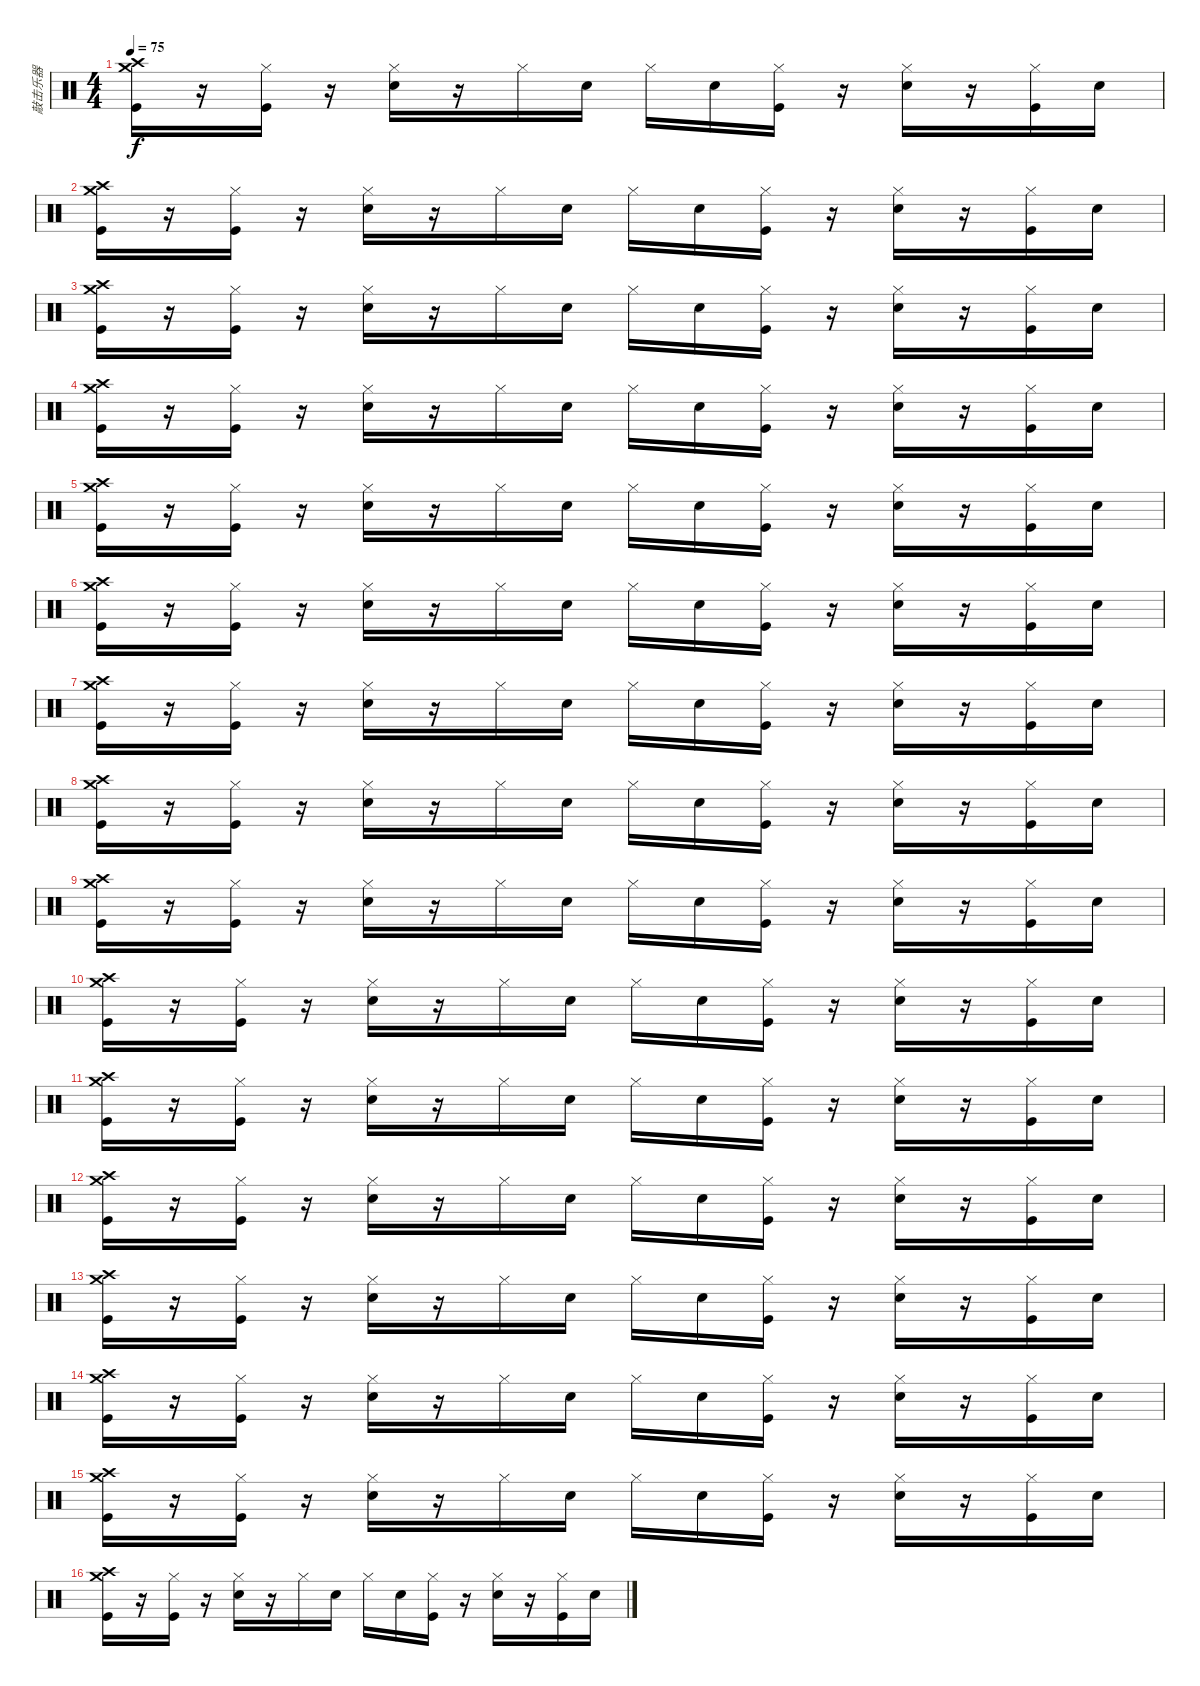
\track ("敲击乐器" "敲击乐器") {instrument percussion}
\staff {score}
\articulation defaults
\ts (4 4)
\tempo 75
\clef neutral
\ks c
("Crash medium (hit)" "Crash high (hit)" "Kick (hit)").16{dy f} r.16 ("Hi-Hat (closed)" "Kick (hit)").16 r.16 ("Hi-Hat (closed)" "Snare (hit) 2").16 r.16 "Hi-Hat (closed)".16 "Snare (hit) 2".16 "Hi-Hat (closed)".16 "Snare (hit) 2".16 ("Hi-Hat (closed)" "Kick (hit)").16 r.16 ("Hi-Hat (closed)" "Snare (hit) 2").16 r.16 ("Hi-Hat (closed)" "Kick (hit)").16 "Snare (hit) 2".16 |
("Crash medium (hit)" "Crash high (hit)" "Kick (hit)").16 r.16 ("Hi-Hat (closed)" "Kick (hit)").16 r.16 ("Hi-Hat (closed)" "Snare (hit) 2").16 r.16 "Hi-Hat (closed)".16 "Snare (hit) 2".16 "Hi-Hat (closed)".16 "Snare (hit) 2".16 ("Hi-Hat (closed)" "Kick (hit)").16 r.16 ("Hi-Hat (closed)" "Snare (hit) 2").16 r.16 ("Hi-Hat (closed)" "Kick (hit)").16 "Snare (hit) 2".16 |
("Crash medium (hit)" "Crash high (hit)" "Kick (hit)").16 r.16 ("Hi-Hat (closed)" "Kick (hit)").16 r.16 ("Hi-Hat (closed)" "Snare (hit) 2").16 r.16 "Hi-Hat (closed)".16 "Snare (hit) 2".16 "Hi-Hat (closed)".16 "Snare (hit) 2".16 ("Hi-Hat (closed)" "Kick (hit)").16 r.16 ("Hi-Hat (closed)" "Snare (hit) 2").16 r.16 ("Hi-Hat (closed)" "Kick (hit)").16 "Snare (hit) 2".16 |
("Crash medium (hit)" "Crash high (hit)" "Kick (hit)").16 r.16 ("Hi-Hat (closed)" "Kick (hit)").16 r.16 ("Hi-Hat (closed)" "Snare (hit) 2").16 r.16 "Hi-Hat (closed)".16 "Snare (hit) 2".16 "Hi-Hat (closed)".16 "Snare (hit) 2".16 ("Hi-Hat (closed)" "Kick (hit)").16 r.16 ("Hi-Hat (closed)" "Snare (hit) 2").16 r.16 ("Hi-Hat (closed)" "Kick (hit)").16 "Snare (hit) 2".16 |
("Crash medium (hit)" "Crash high (hit)" "Kick (hit)").16 r.16 ("Hi-Hat (closed)" "Kick (hit)").16 r.16 ("Hi-Hat (closed)" "Snare (hit) 2").16 r.16 "Hi-Hat (closed)".16 "Snare (hit) 2".16 "Hi-Hat (closed)".16 "Snare (hit) 2".16 ("Hi-Hat (closed)" "Kick (hit)").16 r.16 ("Hi-Hat (closed)" "Snare (hit) 2").16 r.16 ("Hi-Hat (closed)" "Kick (hit)").16 "Snare (hit) 2".16 |
("Crash medium (hit)" "Crash high (hit)" "Kick (hit)").16 r.16 ("Hi-Hat (closed)" "Kick (hit)").16 r.16 ("Hi-Hat (closed)" "Snare (hit) 2").16 r.16 "Hi-Hat (closed)".16 "Snare (hit) 2".16 "Hi-Hat (closed)".16 "Snare (hit) 2".16 ("Hi-Hat (closed)" "Kick (hit)").16 r.16 ("Hi-Hat (closed)" "Snare (hit) 2").16 r.16 ("Hi-Hat (closed)" "Kick (hit)").16 "Snare (hit) 2".16 |
("Crash medium (hit)" "Crash high (hit)" "Kick (hit)").16 r.16 ("Hi-Hat (closed)" "Kick (hit)").16 r.16 ("Hi-Hat (closed)" "Snare (hit) 2").16 r.16 "Hi-Hat (closed)".16 "Snare (hit) 2".16 "Hi-Hat (closed)".16 "Snare (hit) 2".16 ("Hi-Hat (closed)" "Kick (hit)").16 r.16 ("Hi-Hat (closed)" "Snare (hit) 2").16 r.16 ("Hi-Hat (closed)" "Kick (hit)").16 "Snare (hit) 2".16 |
("Crash medium (hit)" "Crash high (hit)" "Kick (hit)").16 r.16 ("Hi-Hat (closed)" "Kick (hit)").16 r.16 ("Hi-Hat (closed)" "Snare (hit) 2").16 r.16 "Hi-Hat (closed)".16 "Snare (hit) 2".16 "Hi-Hat (closed)".16 "Snare (hit) 2".16 ("Hi-Hat (closed)" "Kick (hit)").16 r.16 ("Hi-Hat (closed)" "Snare (hit) 2").16 r.16 ("Hi-Hat (closed)" "Kick (hit)").16 "Snare (hit) 2".16 |
("Crash medium (hit)" "Crash high (hit)" "Kick (hit)").16 r.16 ("Hi-Hat (closed)" "Kick (hit)").16 r.16 ("Hi-Hat (closed)" "Snare (hit) 2").16 r.16 "Hi-Hat (closed)".16 "Snare (hit) 2".16 "Hi-Hat (closed)".16 "Snare (hit) 2".16 ("Hi-Hat (closed)" "Kick (hit)").16 r.16 ("Hi-Hat (closed)" "Snare (hit) 2").16 r.16 ("Hi-Hat (closed)" "Kick (hit)").16 "Snare (hit) 2".16 |
("Crash medium (hit)" "Crash high (hit)" "Kick (hit)").16 r.16 ("Hi-Hat (closed)" "Kick (hit)").16 r.16 ("Hi-Hat (closed)" "Snare (hit) 2").16 r.16 "Hi-Hat (closed)".16 "Snare (hit) 2".16 "Hi-Hat (closed)".16 "Snare (hit) 2".16 ("Hi-Hat (closed)" "Kick (hit)").16 r.16 ("Hi-Hat (closed)" "Snare (hit) 2").16 r.16 ("Hi-Hat (closed)" "Kick (hit)").16 "Snare (hit) 2".16 |
("Crash medium (hit)" "Crash high (hit)" "Kick (hit)").16 r.16 ("Hi-Hat (closed)" "Kick (hit)").16 r.16 ("Hi-Hat (closed)" "Snare (hit) 2").16 r.16 "Hi-Hat (closed)".16 "Snare (hit) 2".16 "Hi-Hat (closed)".16 "Snare (hit) 2".16 ("Hi-Hat (closed)" "Kick (hit)").16 r.16 ("Hi-Hat (closed)" "Snare (hit) 2").16 r.16 ("Hi-Hat (closed)" "Kick (hit)").16 "Snare (hit) 2".16 |
("Crash medium (hit)" "Crash high (hit)" "Kick (hit)").16 r.16 ("Hi-Hat (closed)" "Kick (hit)").16 r.16 ("Hi-Hat (closed)" "Snare (hit) 2").16 r.16 "Hi-Hat (closed)".16 "Snare (hit) 2".16 "Hi-Hat (closed)".16 "Snare (hit) 2".16 ("Hi-Hat (closed)" "Kick (hit)").16 r.16 ("Hi-Hat (closed)" "Snare (hit) 2").16 r.16 ("Hi-Hat (closed)" "Kick (hit)").16 "Snare (hit) 2".16 |
("Crash medium (hit)" "Crash high (hit)" "Kick (hit)").16 r.16 ("Hi-Hat (closed)" "Kick (hit)").16 r.16 ("Hi-Hat (closed)" "Snare (hit) 2").16 r.16 "Hi-Hat (closed)".16 "Snare (hit) 2".16 "Hi-Hat (closed)".16 "Snare (hit) 2".16 ("Hi-Hat (closed)" "Kick (hit)").16 r.16 ("Hi-Hat (closed)" "Snare (hit) 2").16 r.16 ("Hi-Hat (closed)" "Kick (hit)").16 "Snare (hit) 2".16 |
("Crash medium (hit)" "Crash high (hit)" "Kick (hit)").16 r.16 ("Hi-Hat (closed)" "Kick (hit)").16 r.16 ("Hi-Hat (closed)" "Snare (hit) 2").16 r.16 "Hi-Hat (closed)".16 "Snare (hit) 2".16 "Hi-Hat (closed)".16 "Snare (hit) 2".16 ("Hi-Hat (closed)" "Kick (hit)").16 r.16 ("Hi-Hat (closed)" "Snare (hit) 2").16 r.16 ("Hi-Hat (closed)" "Kick (hit)").16 "Snare (hit) 2".16 |
("Crash medium (hit)" "Crash high (hit)" "Kick (hit)").16 r.16 ("Hi-Hat (closed)" "Kick (hit)").16 r.16 ("Hi-Hat (closed)" "Snare (hit) 2").16 r.16 "Hi-Hat (closed)".16 "Snare (hit) 2".16 "Hi-Hat (closed)".16 "Snare (hit) 2".16 ("Hi-Hat (closed)" "Kick (hit)").16 r.16 ("Hi-Hat (closed)" "Snare (hit) 2").16 r.16 ("Hi-Hat (closed)" "Kick (hit)").16 "Snare (hit) 2".16 |
("Crash medium (hit)" "Crash high (hit)" "Kick (hit)").16 r.16 ("Hi-Hat (closed)" "Kick (hit)").16 r.16 ("Hi-Hat (closed)" "Snare (hit) 2").16 r.16 "Hi-Hat (closed)".16 "Snare (hit) 2".16 "Hi-Hat (closed)".16 "Snare (hit) 2".16 ("Hi-Hat (closed)" "Kick (hit)").16 r.16 ("Hi-Hat (closed)" "Snare (hit) 2").16 r.16 ("Hi-Hat (closed)" "Kick (hit)").16 "Snare (hit) 2".16
